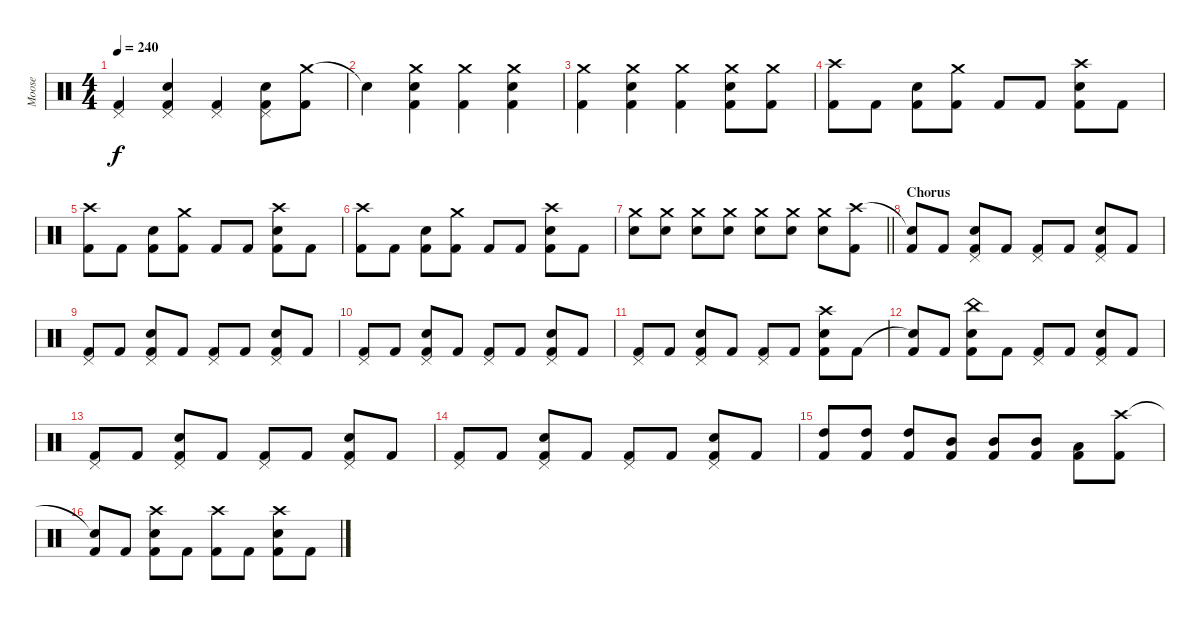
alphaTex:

\track ("Moose" "Moose") {instrument percussion}
\staff {score}
\articulation defaults
\ts (4 4)
\tempo 240
\clef neutral
\ks c
("Pedal Hi-Hat (hit)" "Kick (hit) 2").4{dy f} ("Pedal Hi-Hat (hit)" "Snare (hit) 2" "Kick (hit) 2").4 ("Pedal Hi-Hat (hit)" "Kick (hit) 2").4 ("Pedal Hi-Hat (hit)" "Snare (hit) 2" "Kick (hit) 2").8 ("Crash medium (hit)" "Kick (hit) 2").8 |
"Snare (hit)"{t}.4 ("Crash medium (hit)" "Snare (hit) 2" "Kick (hit) 2").4 ("Crash medium (hit)" "Kick (hit) 2").4 ("Crash medium (hit)" "Snare (hit) 2" "Kick (hit) 2").4 |
("Crash medium (hit)" "Kick (hit) 2").4 ("Crash medium (hit)" "Snare (hit) 2" "Kick (hit) 2").4 ("Crash medium (hit)" "Kick (hit) 2").4 ("Crash medium (hit)" "Snare (hit) 2" "Kick (hit) 2").8 ("Crash medium (hit)" "Kick (hit) 2").8 |
("Crash high (hit)" "Kick (hit) 2").8 "Kick (hit) 2".8 ("Snare (hit) 2" "Kick (hit) 2").8 ("Crash medium (hit)" "Kick (hit) 2").8 "Kick (hit) 2".8 "Kick (hit) 2".8 ("Crash high (hit)" "Snare (hit) 2" "Kick (hit) 2").8 "Kick (hit) 2".8 |
("Crash high (hit)" "Kick (hit) 2").8 "Kick (hit) 2".8 ("Snare (hit) 2" "Kick (hit) 2").8 ("Crash medium (hit)" "Kick (hit) 2").8 "Kick (hit) 2".8 "Kick (hit) 2".8 ("Crash high (hit)" "Snare (hit) 2" "Kick (hit) 2").8 "Kick (hit) 2".8 |
("Crash high (hit)" "Kick (hit) 2").8 "Kick (hit) 2".8 ("Snare (hit) 2" "Kick (hit) 2").8 ("Crash medium (hit)" "Kick (hit) 2").8 "Kick (hit) 2".8 "Kick (hit) 2".8 ("Crash high (hit)" "Snare (hit) 2" "Kick (hit) 2").8 "Kick (hit) 2".8 |
\barLineRight lightlight
("Crash medium (hit)" "Snare (hit) 2").8 ("Crash medium (hit)" "Snare (hit) 2").8 ("Crash medium (hit)" "Snare (hit) 2").8 ("Crash medium (hit)" "Snare (hit) 2").8 ("Crash medium (hit)" "Snare (hit) 2").8 ("Crash medium (hit)" "Snare (hit) 2").8 ("Crash medium (hit)" "Snare (hit) 2").8 ("Crash high (hit)" "Kick (hit) 2").8 |
\section ("" "Chorus")
("Snare (hit)"{t} "Kick (hit) 2").8 "Kick (hit) 2".8 ("Pedal Hi-Hat (hit)" "Snare (hit) 2" "Kick (hit) 2").8 "Kick (hit) 2".8 ("Pedal Hi-Hat (hit)" "Kick (hit) 2").8 "Kick (hit) 2".8 ("Pedal Hi-Hat (hit)" "Snare (hit) 2" "Kick (hit) 2").8 "Kick (hit) 2".8 |
("Pedal Hi-Hat (hit)" "Kick (hit) 2").8 "Kick (hit) 2".8 ("Pedal Hi-Hat (hit)" "Snare (hit) 2" "Kick (hit) 2").8 "Kick (hit) 2".8 ("Pedal Hi-Hat (hit)" "Kick (hit) 2").8 "Kick (hit) 2".8 ("Pedal Hi-Hat (hit)" "Snare (hit) 2" "Kick (hit) 2").8 "Kick (hit) 2".8 |
("Pedal Hi-Hat (hit)" "Kick (hit) 2").8 "Kick (hit) 2".8 ("Pedal Hi-Hat (hit)" "Snare (hit) 2" "Kick (hit) 2").8 "Kick (hit) 2".8 ("Pedal Hi-Hat (hit)" "Kick (hit) 2").8 "Kick (hit) 2".8 ("Pedal Hi-Hat (hit)" "Snare (hit) 2" "Kick (hit) 2").8 "Kick (hit) 2".8 |
("Pedal Hi-Hat (hit)" "Kick (hit) 2").8 "Kick (hit) 2".8 ("Pedal Hi-Hat (hit)" "Snare (hit) 2" "Kick (hit) 2").8 "Kick (hit) 2".8 ("Pedal Hi-Hat (hit)" "Kick (hit) 2").8 "Kick (hit) 2".8 ("Crash high (hit)" "Snare (hit) 2" "Kick (hit) 2").8 "Kick (hit) 2".8 |
("Snare (hit)"{t} "Kick (hit) 2").8 "Kick (hit) 2".8 ("China (hit)" "Snare (hit) 2" "Kick (hit) 2").8 "Kick (hit) 2".8 ("Pedal Hi-Hat (hit)" "Kick (hit) 2").8 "Kick (hit) 2".8 ("Pedal Hi-Hat (hit)" "Snare (hit) 2" "Kick (hit) 2").8 "Kick (hit) 2".8 |
("Pedal Hi-Hat (hit)" "Kick (hit) 2").8 "Kick (hit) 2".8 ("Pedal Hi-Hat (hit)" "Snare (hit) 2" "Kick (hit) 2").8 "Kick (hit) 2".8 ("Pedal Hi-Hat (hit)" "Kick (hit) 2").8 "Kick (hit) 2".8 ("Pedal Hi-Hat (hit)" "Snare (hit) 2" "Kick (hit) 2").8 "Kick (hit) 2".8 |
("Pedal Hi-Hat (hit)" "Kick (hit) 2").8 "Kick (hit) 2".8 ("Pedal Hi-Hat (hit)" "Snare (hit) 2" "Kick (hit) 2").8 "Kick (hit) 2".8 ("Pedal Hi-Hat (hit)" "Kick (hit) 2").8 "Kick (hit) 2".8 ("Pedal Hi-Hat (hit)" "Snare (hit) 2" "Kick (hit) 2").8 "Kick (hit) 2".8 |
("High Tom (hit)" "Kick (hit) 2").8 ("High Tom (hit)" "Kick (hit) 2").8 ("High Tom (hit)" "Kick (hit) 2").8 ("Mid Tom (hit)" "Kick (hit) 2").8 ("Mid Tom (hit)" "Kick (hit) 2").8 ("Mid Tom (hit)" "Kick (hit) 2").8 ("Low Tom (hit)" "Kick (hit) 2").8 ("Crash high (hit)" "Kick (hit) 2").8 |
("Snare (hit)"{t} "Kick (hit) 2").8 "Kick (hit) 2".8 ("Crash high (hit)" "Snare (hit) 2" "Kick (hit) 2").8 "Kick (hit) 2".8 ("Crash high (hit)" "Kick (hit) 2").8 "Kick (hit) 2".8 ("Crash high (hit)" "Snare (hit) 2" "Kick (hit) 2").8 "Kick (hit) 2".8
